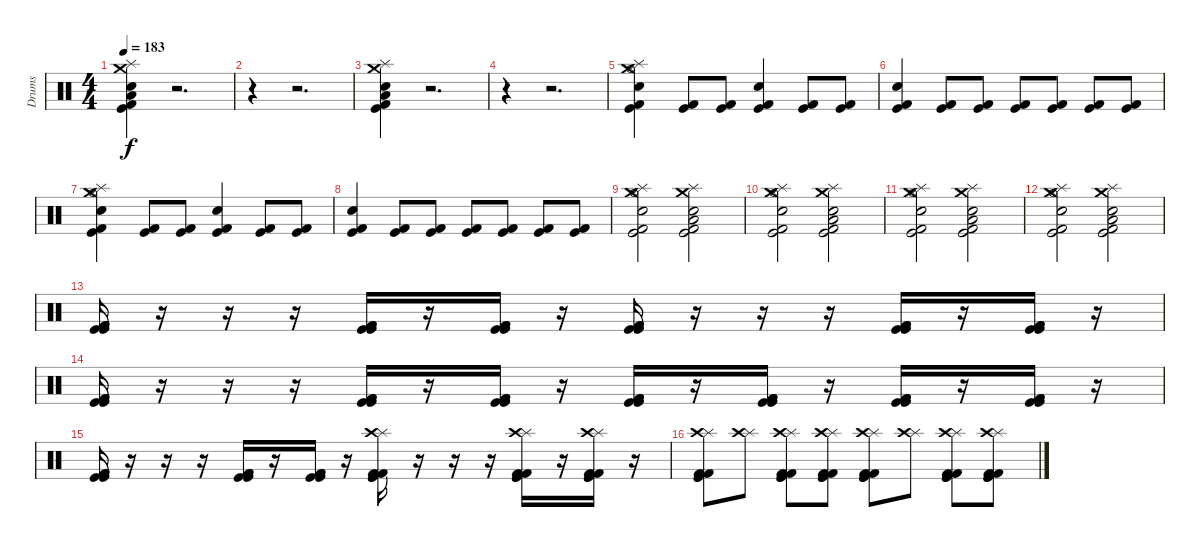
\track ("Drums" "Drums") {instrument percussion}
\staff {score}
\articulation defaults
\ts (4 4)
\tempo 183
\clef neutral
\ks c
("Crash medium (hit)" "Kick (hit) 2" "Kick (hit)" "Electric Snare (hit)" "Low Tom (hit)" "Splash (hit)").4{dy f} r.2{d} |
r.4 r.2{d} |
("Crash medium (hit)" "Kick (hit) 2" "Kick (hit)" "Electric Snare (hit)" "Low Tom (hit)" "Splash (hit)").4 r.2{d} |
r.4 r.2{d} |
("Hi-Hat (open)" "Crash medium (hit)" "Splash (hit)" "Kick (hit)" "Kick (hit) 2" "Electric Snare (hit)").4 ("Kick (hit) 2" "Kick (hit)").8 ("Kick (hit) 2" "Kick (hit)").8 ("Kick (hit) 2" "Kick (hit)" "Electric Snare (hit)").4 ("Kick (hit) 2" "Kick (hit)").8 ("Kick (hit) 2" "Kick (hit)").8 |
("Kick (hit) 2" "Kick (hit)" "Electric Snare (hit)").4 ("Kick (hit) 2" "Kick (hit)").8 ("Kick (hit) 2" "Kick (hit)").8 ("Kick (hit) 2" "Kick (hit)").8 ("Kick (hit) 2" "Kick (hit)").8 ("Kick (hit) 2" "Kick (hit)").8 ("Kick (hit) 2" "Kick (hit)").8 |
("Hi-Hat (open)" "Crash medium (hit)" "Splash (hit)" "Kick (hit)" "Kick (hit) 2" "Electric Snare (hit)").4 ("Kick (hit) 2" "Kick (hit)").8 ("Kick (hit) 2" "Kick (hit)").8 ("Kick (hit) 2" "Kick (hit)" "Electric Snare (hit)").4 ("Kick (hit) 2" "Kick (hit)").8 ("Kick (hit) 2" "Kick (hit)").8 |
("Kick (hit) 2" "Kick (hit)" "Electric Snare (hit)").4 ("Kick (hit) 2" "Kick (hit)").8 ("Kick (hit) 2" "Kick (hit)").8 ("Kick (hit) 2" "Kick (hit)").8 ("Kick (hit) 2" "Kick (hit)").8 ("Kick (hit) 2" "Kick (hit)").8 ("Kick (hit) 2" "Kick (hit)").8 |
("Hi-Hat (open)" "Crash medium (hit)" "Splash (hit)" "Kick (hit)" "Kick (hit) 2" "Electric Snare (hit)").2 ("Splash (hit)" "Crash medium (hit)" "Kick (hit) 2" "Kick (hit)" "Low Tom (hit)" "Electric Snare (hit)").2 |
("Hi-Hat (open)" "Crash medium (hit)" "Splash (hit)" "Kick (hit)" "Kick (hit) 2" "Electric Snare (hit)").2 ("Splash (hit)" "Crash medium (hit)" "Kick (hit) 2" "Kick (hit)" "Low Tom (hit)" "Electric Snare (hit)").2 |
("Hi-Hat (open)" "Crash medium (hit)" "Splash (hit)" "Kick (hit)" "Kick (hit) 2" "Electric Snare (hit)").2 ("Splash (hit)" "Crash medium (hit)" "Kick (hit) 2" "Kick (hit)" "Low Tom (hit)" "Electric Snare (hit)").2 |
("Hi-Hat (open)" "Crash medium (hit)" "Splash (hit)" "Kick (hit)" "Kick (hit) 2" "Electric Snare (hit)").2 ("Splash (hit)" "Crash medium (hit)" "Kick (hit) 2" "Kick (hit)" "Low Tom (hit)" "Electric Snare (hit)").2 |
("Kick (hit) 2" "Kick (hit)" "Kick (hit)" "Kick (hit) 2").16 r.16 r.16 r.16 ("Kick (hit) 2" "Kick (hit)" "Kick (hit)" "Kick (hit) 2").16 r.16 ("Kick (hit) 2" "Kick (hit)" "Kick (hit)" "Kick (hit) 2").16 r.16 ("Kick (hit) 2" "Kick (hit)" "Kick (hit)" "Kick (hit) 2").16 r.16 r.16 r.16 ("Kick (hit) 2" "Kick (hit)" "Kick (hit)" "Kick (hit) 2").16 r.16 ("Kick (hit) 2" "Kick (hit)" "Kick (hit)" "Kick (hit) 2").16 r.16 |
("Kick (hit) 2" "Kick (hit)" "Kick (hit)" "Kick (hit) 2").16 r.16 r.16 r.16 ("Kick (hit) 2" "Kick (hit)" "Kick (hit)" "Kick (hit) 2").16 r.16 ("Kick (hit) 2" "Kick (hit)" "Kick (hit)" "Kick (hit) 2").16 r.16 ("Kick (hit) 2" "Kick (hit)" "Kick (hit)" "Kick (hit) 2").16 r.16 ("Kick (hit) 2" "Kick (hit)" "Kick (hit)" "Kick (hit) 2").16 r.16 ("Kick (hit) 2" "Kick (hit)" "Kick (hit)" "Kick (hit) 2").16 r.16 ("Kick (hit) 2" "Kick (hit)" "Kick (hit)" "Kick (hit) 2").16 r.16 |
("Kick (hit) 2" "Kick (hit)" "Kick (hit)" "Kick (hit) 2").16 r.16 r.16 r.16 ("Kick (hit) 2" "Kick (hit)" "Kick (hit)" "Kick (hit) 2").16 r.16 ("Kick (hit) 2" "Kick (hit)" "Kick (hit)" "Kick (hit) 2").16 r.16 ("Splash (hit)" "Crash high (hit)" "Kick (hit) 2" "Kick (hit)" "Kick (hit)" "Kick (hit) 2").16 r.16 r.16 r.16 ("Splash (hit)" "Crash high (hit)" "Kick (hit) 2" "Kick (hit)" "Kick (hit)" "Kick (hit) 2").16 r.16 ("Splash (hit)" "Crash high (hit)" "Kick (hit) 2" "Kick (hit)" "Kick (hit)" "Kick (hit) 2").16 r.16 |
("Splash (hit)" "Crash high (hit)" "Kick (hit) 2" "Kick (hit)" "Kick (hit)" "Kick (hit) 2").8 ("Splash (hit)" "Crash high (hit)").8 ("Splash (hit)" "Crash high (hit)" "Kick (hit) 2" "Kick (hit)" "Kick (hit)" "Kick (hit) 2").8 ("Splash (hit)" "Crash high (hit)" "Kick (hit) 2" "Kick (hit)" "Kick (hit)" "Kick (hit) 2").8 ("Splash (hit)" "Crash high (hit)" "Kick (hit) 2" "Kick (hit)" "Kick (hit)" "Kick (hit) 2").8 ("Splash (hit)" "Crash high (hit)").8 ("Splash (hit)" "Crash high (hit)" "Kick (hit) 2" "Kick (hit)" "Kick (hit)" "Kick (hit) 2").8 ("Splash (hit)" "Crash high (hit)" "Kick (hit) 2" "Kick (hit)" "Kick (hit)" "Kick (hit) 2").8
